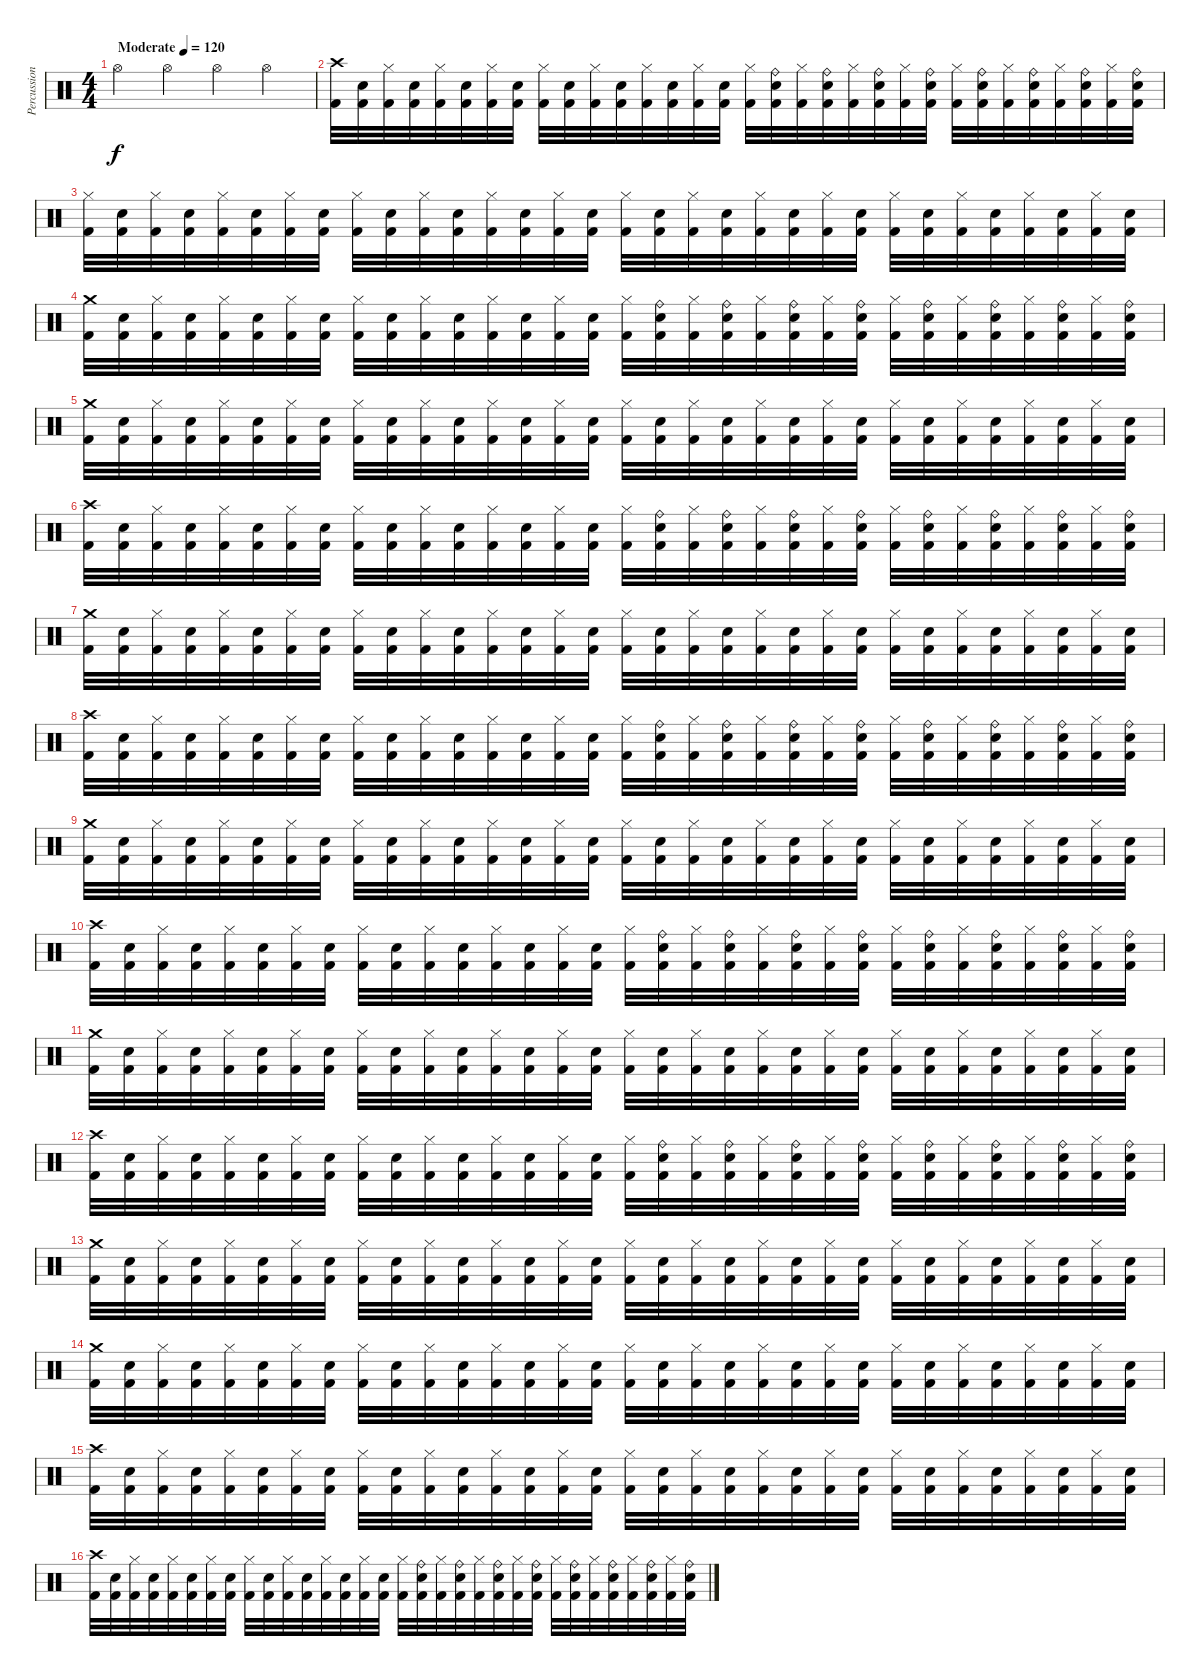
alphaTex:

\track ("Percussion" "Percussion") {instrument percussion}
\staff {score}
\articulation defaults
\ts (4 4)
\tempo (120 "Moderate")
\clef neutral
\ks c "Hi-Hat (open)".4{dy f} "Hi-Hat (open)".4 "Hi-Hat (open)".4 "Hi-Hat (open)".4
|
("Crash high (hit)" "Kick (hit) 2").32 ("Snare (hit) 2" "Kick (hit) 2").32 ("Hi-Hat (closed)" "Kick (hit) 2").32 ("Snare (hit) 2" "Kick (hit) 2").32 ("Hi-Hat (closed)" "Kick (hit) 2").32 ("Snare (hit) 2" "Kick (hit) 2").32 ("Hi-Hat (closed)" "Kick (hit) 2").32 ("Snare (hit) 2" "Kick (hit) 2").32 ("Hi-Hat (closed)" "Kick (hit) 2").32 ("Snare (hit) 2" "Kick (hit) 2").32 ("Hi-Hat (closed)" "Kick (hit) 2").32 ("Snare (hit) 2" "Kick (hit) 2").32 ("Hi-Hat (closed)" "Kick (hit) 2").32 ("Snare (hit) 2" "Kick (hit) 2").32 ("Hi-Hat (closed)" "Kick (hit) 2").32 ("Snare (hit) 2" "Kick (hit) 2").32 ("Hi-Hat (closed)" "Kick (hit) 2").32 ("Snare (hit) 2" "Ride (bell)" "Kick (hit) 2").32 ("Hi-Hat (closed)" "Kick (hit) 2").32 ("Snare (hit) 2" "Ride (bell)" "Kick (hit) 2").32 ("Hi-Hat (closed)" "Kick (hit) 2").32 ("Snare (hit) 2" "Ride (bell)" "Kick (hit) 2").32 ("Hi-Hat (closed)" "Kick (hit) 2").32 ("Snare (hit) 2" "Ride (bell)" "Kick (hit) 2").32 ("Hi-Hat (closed)" "Kick (hit) 2").32 ("Snare (hit) 2" "Ride (bell)" "Kick (hit) 2").32 ("Hi-Hat (closed)" "Kick (hit) 2").32 ("Snare (hit) 2" "Ride (bell)" "Kick (hit) 2").32 ("Hi-Hat (closed)" "Kick (hit) 2").32 ("Snare (hit) 2" "Ride (bell)" "Kick (hit) 2").32 ("Hi-Hat (closed)" "Kick (hit) 2").32 ("Snare (hit) 2" "Ride (bell)" "Kick (hit) 2").32 |
("Hi-Hat (closed)" "Kick (hit) 2").32 ("Snare (hit) 2" "Kick (hit) 2").32 ("Hi-Hat (closed)" "Kick (hit) 2").32 ("Snare (hit) 2" "Kick (hit) 2").32 ("Hi-Hat (closed)" "Kick (hit) 2").32 ("Snare (hit) 2" "Kick (hit) 2").32 ("Hi-Hat (closed)" "Kick (hit) 2").32 ("Snare (hit) 2" "Kick (hit) 2").32 ("Hi-Hat (closed)" "Kick (hit) 2").32 ("Snare (hit) 2" "Kick (hit) 2").32 ("Hi-Hat (closed)" "Kick (hit) 2").32 ("Snare (hit) 2" "Kick (hit) 2").32 ("Hi-Hat (closed)" "Kick (hit) 2").32 ("Snare (hit) 2" "Kick (hit) 2").32 ("Hi-Hat (closed)" "Kick (hit) 2").32 ("Snare (hit) 2" "Kick (hit) 2").32 ("Hi-Hat (closed)" "Kick (hit) 2").32 ("Snare (hit) 2" "Kick (hit) 2").32 ("Hi-Hat (closed)" "Kick (hit) 2").32 ("Snare (hit) 2" "Kick (hit) 2").32 ("Hi-Hat (closed)" "Kick (hit) 2").32 ("Snare (hit) 2" "Kick (hit) 2").32 ("Hi-Hat (closed)" "Kick (hit) 2").32 ("Snare (hit) 2" "Kick (hit) 2").32 ("Hi-Hat (closed)" "Kick (hit) 2").32 ("Snare (hit) 2" "Kick (hit) 2").32 ("Hi-Hat (closed)" "Kick (hit) 2").32 ("Snare (hit) 2" "Kick (hit) 2").32 ("Hi-Hat (closed)" "Kick (hit) 2").32 ("Snare (hit) 2" "Kick (hit) 2").32 ("Hi-Hat (closed)" "Kick (hit) 2").32 ("Snare (hit) 2" "Kick (hit) 2").32 |
("Crash medium (hit)" "Kick (hit) 2").32 ("Snare (hit) 2" "Kick (hit) 2").32 ("Hi-Hat (closed)" "Kick (hit) 2").32 ("Snare (hit) 2" "Kick (hit) 2").32 ("Hi-Hat (closed)" "Kick (hit) 2").32 ("Snare (hit) 2" "Kick (hit) 2").32 ("Hi-Hat (closed)" "Kick (hit) 2").32 ("Snare (hit) 2" "Kick (hit) 2").32 ("Hi-Hat (closed)" "Kick (hit) 2").32 ("Snare (hit) 2" "Kick (hit) 2").32 ("Hi-Hat (closed)" "Kick (hit) 2").32 ("Snare (hit) 2" "Kick (hit) 2").32 ("Hi-Hat (closed)" "Kick (hit) 2").32 ("Snare (hit) 2" "Kick (hit) 2").32 ("Hi-Hat (closed)" "Kick (hit) 2").32 ("Snare (hit) 2" "Kick (hit) 2").32 ("Hi-Hat (closed)" "Kick (hit) 2").32 ("Snare (hit) 2" "Ride (bell)" "Kick (hit) 2").32 ("Hi-Hat (closed)" "Kick (hit) 2").32 ("Snare (hit) 2" "Ride (bell)" "Kick (hit) 2").32 ("Hi-Hat (closed)" "Kick (hit) 2").32 ("Snare (hit) 2" "Ride (bell)" "Kick (hit) 2").32 ("Hi-Hat (closed)" "Kick (hit) 2").32 ("Snare (hit) 2" "Ride (bell)" "Kick (hit) 2").32 ("Hi-Hat (closed)" "Kick (hit) 2").32 ("Snare (hit) 2" "Ride (bell)" "Kick (hit) 2").32 ("Hi-Hat (closed)" "Kick (hit) 2").32 ("Snare (hit) 2" "Ride (bell)" "Kick (hit) 2").32 ("Hi-Hat (closed)" "Kick (hit) 2").32 ("Snare (hit) 2" "Ride (bell)" "Kick (hit) 2").32 ("Hi-Hat (closed)" "Kick (hit) 2").32 ("Snare (hit) 2" "Ride (bell)" "Kick (hit) 2").32 |
("Crash medium (hit)" "Kick (hit) 2").32 ("Snare (hit) 2" "Kick (hit) 2").32 ("Hi-Hat (closed)" "Kick (hit) 2").32 ("Snare (hit) 2" "Kick (hit) 2").32 ("Hi-Hat (closed)" "Kick (hit) 2").32 ("Snare (hit) 2" "Kick (hit) 2").32 ("Hi-Hat (closed)" "Kick (hit) 2").32 ("Snare (hit) 2" "Kick (hit) 2").32 ("Hi-Hat (closed)" "Kick (hit) 2").32 ("Snare (hit) 2" "Kick (hit) 2").32 ("Hi-Hat (closed)" "Kick (hit) 2").32 ("Snare (hit) 2" "Kick (hit) 2").32 ("Hi-Hat (closed)" "Kick (hit) 2").32 ("Snare (hit) 2" "Kick (hit) 2").32 ("Hi-Hat (closed)" "Kick (hit) 2").32 ("Snare (hit) 2" "Kick (hit) 2").32 ("Hi-Hat (closed)" "Kick (hit) 2").32 ("Snare (hit) 2" "Kick (hit) 2").32 ("Hi-Hat (closed)" "Kick (hit) 2").32 ("Snare (hit) 2" "Kick (hit) 2").32 ("Hi-Hat (closed)" "Kick (hit) 2").32 ("Snare (hit) 2" "Kick (hit) 2").32 ("Hi-Hat (closed)" "Kick (hit) 2").32 ("Snare (hit) 2" "Kick (hit) 2").32 ("Hi-Hat (closed)" "Kick (hit) 2").32 ("Snare (hit) 2" "Kick (hit) 2").32 ("Hi-Hat (closed)" "Kick (hit) 2").32 ("Snare (hit) 2" "Kick (hit) 2").32 ("Hi-Hat (closed)" "Kick (hit) 2").32 ("Snare (hit) 2" "Kick (hit) 2").32 ("Hi-Hat (closed)" "Kick (hit) 2").32 ("Snare (hit) 2" "Kick (hit) 2").32 |
("Crash high (hit)" "Kick (hit) 2").32 ("Snare (hit) 2" "Kick (hit) 2").32 ("Hi-Hat (closed)" "Kick (hit) 2").32 ("Snare (hit) 2" "Kick (hit) 2").32 ("Hi-Hat (closed)" "Kick (hit) 2").32 ("Snare (hit) 2" "Kick (hit) 2").32 ("Hi-Hat (closed)" "Kick (hit) 2").32 ("Snare (hit) 2" "Kick (hit) 2").32 ("Hi-Hat (closed)" "Kick (hit) 2").32 ("Snare (hit) 2" "Kick (hit) 2").32 ("Hi-Hat (closed)" "Kick (hit) 2").32 ("Snare (hit) 2" "Kick (hit) 2").32 ("Hi-Hat (closed)" "Kick (hit) 2").32 ("Snare (hit) 2" "Kick (hit) 2").32 ("Hi-Hat (closed)" "Kick (hit) 2").32 ("Snare (hit) 2" "Kick (hit) 2").32 ("Hi-Hat (closed)" "Kick (hit) 2").32 ("Snare (hit) 2" "Ride (bell)" "Kick (hit) 2").32 ("Hi-Hat (closed)" "Kick (hit) 2").32 ("Snare (hit) 2" "Ride (bell)" "Kick (hit) 2").32 ("Hi-Hat (closed)" "Kick (hit) 2").32 ("Snare (hit) 2" "Ride (bell)" "Kick (hit) 2").32 ("Hi-Hat (closed)" "Kick (hit) 2").32 ("Snare (hit) 2" "Ride (bell)" "Kick (hit) 2").32 ("Hi-Hat (closed)" "Kick (hit) 2").32 ("Snare (hit) 2" "Ride (bell)" "Kick (hit) 2").32 ("Hi-Hat (closed)" "Kick (hit) 2").32 ("Snare (hit) 2" "Ride (bell)" "Kick (hit) 2").32 ("Hi-Hat (closed)" "Kick (hit) 2").32 ("Snare (hit) 2" "Ride (bell)" "Kick (hit) 2").32 ("Hi-Hat (closed)" "Kick (hit) 2").32 ("Snare (hit) 2" "Ride (bell)" "Kick (hit) 2").32 |
("Crash medium (hit)" "Kick (hit) 2").32 ("Snare (hit) 2" "Kick (hit) 2").32 ("Hi-Hat (closed)" "Kick (hit) 2").32 ("Snare (hit) 2" "Kick (hit) 2").32 ("Hi-Hat (closed)" "Kick (hit) 2").32 ("Snare (hit) 2" "Kick (hit) 2").32 ("Hi-Hat (closed)" "Kick (hit) 2").32 ("Snare (hit) 2" "Kick (hit) 2").32 ("Hi-Hat (closed)" "Kick (hit) 2").32 ("Snare (hit) 2" "Kick (hit) 2").32 ("Hi-Hat (closed)" "Kick (hit) 2").32 ("Snare (hit) 2" "Kick (hit) 2").32 ("Hi-Hat (closed)" "Kick (hit) 2").32 ("Snare (hit) 2" "Kick (hit) 2").32 ("Hi-Hat (closed)" "Kick (hit) 2").32 ("Snare (hit) 2" "Kick (hit) 2").32 ("Hi-Hat (closed)" "Kick (hit) 2").32 ("Snare (hit) 2" "Kick (hit) 2").32 ("Hi-Hat (closed)" "Kick (hit) 2").32 ("Snare (hit) 2" "Kick (hit) 2").32 ("Hi-Hat (closed)" "Kick (hit) 2").32 ("Snare (hit) 2" "Kick (hit) 2").32 ("Hi-Hat (closed)" "Kick (hit) 2").32 ("Snare (hit) 2" "Kick (hit) 2").32 ("Hi-Hat (closed)" "Kick (hit) 2").32 ("Snare (hit) 2" "Kick (hit) 2").32 ("Hi-Hat (closed)" "Kick (hit) 2").32 ("Snare (hit) 2" "Kick (hit) 2").32 ("Hi-Hat (closed)" "Kick (hit) 2").32 ("Snare (hit) 2" "Kick (hit) 2").32 ("Hi-Hat (closed)" "Kick (hit) 2").32 ("Snare (hit) 2" "Kick (hit) 2").32 |
("Crash high (hit)" "Kick (hit) 2").32 ("Snare (hit) 2" "Kick (hit) 2").32 ("Hi-Hat (closed)" "Kick (hit) 2").32 ("Snare (hit) 2" "Kick (hit) 2").32 ("Hi-Hat (closed)" "Kick (hit) 2").32 ("Snare (hit) 2" "Kick (hit) 2").32 ("Hi-Hat (closed)" "Kick (hit) 2").32 ("Snare (hit) 2" "Kick (hit) 2").32 ("Hi-Hat (closed)" "Kick (hit) 2").32 ("Snare (hit) 2" "Kick (hit) 2").32 ("Hi-Hat (closed)" "Kick (hit) 2").32 ("Snare (hit) 2" "Kick (hit) 2").32 ("Hi-Hat (closed)" "Kick (hit) 2").32 ("Snare (hit) 2" "Kick (hit) 2").32 ("Hi-Hat (closed)" "Kick (hit) 2").32 ("Snare (hit) 2" "Kick (hit) 2").32 ("Hi-Hat (closed)" "Kick (hit) 2").32 ("Snare (hit) 2" "Ride (bell)" "Kick (hit) 2").32 ("Hi-Hat (closed)" "Kick (hit) 2").32 ("Snare (hit) 2" "Ride (bell)" "Kick (hit) 2").32 ("Hi-Hat (closed)" "Kick (hit) 2").32 ("Snare (hit) 2" "Ride (bell)" "Kick (hit) 2").32 ("Hi-Hat (closed)" "Kick (hit) 2").32 ("Snare (hit) 2" "Ride (bell)" "Kick (hit) 2").32 ("Hi-Hat (closed)" "Kick (hit) 2").32 ("Snare (hit) 2" "Ride (bell)" "Kick (hit) 2").32 ("Hi-Hat (closed)" "Kick (hit) 2").32 ("Snare (hit) 2" "Ride (bell)" "Kick (hit) 2").32 ("Hi-Hat (closed)" "Kick (hit) 2").32 ("Snare (hit) 2" "Ride (bell)" "Kick (hit) 2").32 ("Hi-Hat (closed)" "Kick (hit) 2").32 ("Snare (hit) 2" "Ride (bell)" "Kick (hit) 2").32 |
("Crash medium (hit)" "Kick (hit) 2").32 ("Snare (hit) 2" "Kick (hit) 2").32 ("Hi-Hat (closed)" "Kick (hit) 2").32 ("Snare (hit) 2" "Kick (hit) 2").32 ("Hi-Hat (closed)" "Kick (hit) 2").32 ("Snare (hit) 2" "Kick (hit) 2").32 ("Hi-Hat (closed)" "Kick (hit) 2").32 ("Snare (hit) 2" "Kick (hit) 2").32 ("Hi-Hat (closed)" "Kick (hit) 2").32 ("Snare (hit) 2" "Kick (hit) 2").32 ("Hi-Hat (closed)" "Kick (hit) 2").32 ("Snare (hit) 2" "Kick (hit) 2").32 ("Hi-Hat (closed)" "Kick (hit) 2").32 ("Snare (hit) 2" "Kick (hit) 2").32 ("Hi-Hat (closed)" "Kick (hit) 2").32 ("Snare (hit) 2" "Kick (hit) 2").32 ("Hi-Hat (closed)" "Kick (hit) 2").32 ("Snare (hit) 2" "Kick (hit) 2").32 ("Hi-Hat (closed)" "Kick (hit) 2").32 ("Snare (hit) 2" "Kick (hit) 2").32 ("Hi-Hat (closed)" "Kick (hit) 2").32 ("Snare (hit) 2" "Kick (hit) 2").32 ("Hi-Hat (closed)" "Kick (hit) 2").32 ("Snare (hit) 2" "Kick (hit) 2").32 ("Hi-Hat (closed)" "Kick (hit) 2").32 ("Snare (hit) 2" "Kick (hit) 2").32 ("Hi-Hat (closed)" "Kick (hit) 2").32 ("Snare (hit) 2" "Kick (hit) 2").32 ("Hi-Hat (closed)" "Kick (hit) 2").32 ("Snare (hit) 2" "Kick (hit) 2").32 ("Hi-Hat (closed)" "Kick (hit) 2").32 ("Snare (hit) 2" "Kick (hit) 2").32 |
("Crash high (hit)" "Kick (hit) 2").32 ("Snare (hit) 2" "Kick (hit) 2").32 ("Hi-Hat (closed)" "Kick (hit) 2").32 ("Snare (hit) 2" "Kick (hit) 2").32 ("Hi-Hat (closed)" "Kick (hit) 2").32 ("Snare (hit) 2" "Kick (hit) 2").32 ("Hi-Hat (closed)" "Kick (hit) 2").32 ("Snare (hit) 2" "Kick (hit) 2").32 ("Hi-Hat (closed)" "Kick (hit) 2").32 ("Snare (hit) 2" "Kick (hit) 2").32 ("Hi-Hat (closed)" "Kick (hit) 2").32 ("Snare (hit) 2" "Kick (hit) 2").32 ("Hi-Hat (closed)" "Kick (hit) 2").32 ("Snare (hit) 2" "Kick (hit) 2").32 ("Hi-Hat (closed)" "Kick (hit) 2").32 ("Snare (hit) 2" "Kick (hit) 2").32 ("Hi-Hat (closed)" "Kick (hit) 2").32 ("Snare (hit) 2" "Ride (bell)" "Kick (hit) 2").32 ("Hi-Hat (closed)" "Kick (hit) 2").32 ("Snare (hit) 2" "Ride (bell)" "Kick (hit) 2").32 ("Hi-Hat (closed)" "Kick (hit) 2").32 ("Snare (hit) 2" "Ride (bell)" "Kick (hit) 2").32 ("Hi-Hat (closed)" "Kick (hit) 2").32 ("Snare (hit) 2" "Ride (bell)" "Kick (hit) 2").32 ("Hi-Hat (closed)" "Kick (hit) 2").32 ("Snare (hit) 2" "Ride (bell)" "Kick (hit) 2").32 ("Hi-Hat (closed)" "Kick (hit) 2").32 ("Snare (hit) 2" "Ride (bell)" "Kick (hit) 2").32 ("Hi-Hat (closed)" "Kick (hit) 2").32 ("Snare (hit) 2" "Ride (bell)" "Kick (hit) 2").32 ("Hi-Hat (closed)" "Kick (hit) 2").32 ("Snare (hit) 2" "Ride (bell)" "Kick (hit) 2").32 |
("Crash medium (hit)" "Kick (hit) 2").32 ("Snare (hit) 2" "Kick (hit) 2").32 ("Hi-Hat (closed)" "Kick (hit) 2").32 ("Snare (hit) 2" "Kick (hit) 2").32 ("Hi-Hat (closed)" "Kick (hit) 2").32 ("Snare (hit) 2" "Kick (hit) 2").32 ("Hi-Hat (closed)" "Kick (hit) 2").32 ("Snare (hit) 2" "Kick (hit) 2").32 ("Hi-Hat (closed)" "Kick (hit) 2").32 ("Snare (hit) 2" "Kick (hit) 2").32 ("Hi-Hat (closed)" "Kick (hit) 2").32 ("Snare (hit) 2" "Kick (hit) 2").32 ("Hi-Hat (closed)" "Kick (hit) 2").32 ("Snare (hit) 2" "Kick (hit) 2").32 ("Hi-Hat (closed)" "Kick (hit) 2").32 ("Snare (hit) 2" "Kick (hit) 2").32 ("Hi-Hat (closed)" "Kick (hit) 2").32 ("Snare (hit) 2" "Kick (hit) 2").32 ("Hi-Hat (closed)" "Kick (hit) 2").32 ("Snare (hit) 2" "Kick (hit) 2").32 ("Hi-Hat (closed)" "Kick (hit) 2").32 ("Snare (hit) 2" "Kick (hit) 2").32 ("Hi-Hat (closed)" "Kick (hit) 2").32 ("Snare (hit) 2" "Kick (hit) 2").32 ("Hi-Hat (closed)" "Kick (hit) 2").32 ("Snare (hit) 2" "Kick (hit) 2").32 ("Hi-Hat (closed)" "Kick (hit) 2").32 ("Snare (hit) 2" "Kick (hit) 2").32 ("Hi-Hat (closed)" "Kick (hit) 2").32 ("Snare (hit) 2" "Kick (hit) 2").32 ("Hi-Hat (closed)" "Kick (hit) 2").32 ("Snare (hit) 2" "Kick (hit) 2").32 |
("Crash high (hit)" "Kick (hit) 2").32 ("Snare (hit) 2" "Kick (hit) 2").32 ("Hi-Hat (closed)" "Kick (hit) 2").32 ("Snare (hit) 2" "Kick (hit) 2").32 ("Hi-Hat (closed)" "Kick (hit) 2").32 ("Snare (hit) 2" "Kick (hit) 2").32 ("Hi-Hat (closed)" "Kick (hit) 2").32 ("Snare (hit) 2" "Kick (hit) 2").32 ("Hi-Hat (closed)" "Kick (hit) 2").32 ("Snare (hit) 2" "Kick (hit) 2").32 ("Hi-Hat (closed)" "Kick (hit) 2").32 ("Snare (hit) 2" "Kick (hit) 2").32 ("Hi-Hat (closed)" "Kick (hit) 2").32 ("Snare (hit) 2" "Kick (hit) 2").32 ("Hi-Hat (closed)" "Kick (hit) 2").32 ("Snare (hit) 2" "Kick (hit) 2").32 ("Hi-Hat (closed)" "Kick (hit) 2").32 ("Snare (hit) 2" "Ride (bell)" "Kick (hit) 2").32 ("Hi-Hat (closed)" "Kick (hit) 2").32 ("Snare (hit) 2" "Ride (bell)" "Kick (hit) 2").32 ("Hi-Hat (closed)" "Kick (hit) 2").32 ("Snare (hit) 2" "Ride (bell)" "Kick (hit) 2").32 ("Hi-Hat (closed)" "Kick (hit) 2").32 ("Snare (hit) 2" "Ride (bell)" "Kick (hit) 2").32 ("Hi-Hat (closed)" "Kick (hit) 2").32 ("Snare (hit) 2" "Ride (bell)" "Kick (hit) 2").32 ("Hi-Hat (closed)" "Kick (hit) 2").32 ("Snare (hit) 2" "Ride (bell)" "Kick (hit) 2").32 ("Hi-Hat (closed)" "Kick (hit) 2").32 ("Snare (hit) 2" "Ride (bell)" "Kick (hit) 2").32 ("Hi-Hat (closed)" "Kick (hit) 2").32 ("Snare (hit) 2" "Ride (bell)" "Kick (hit) 2").32 |
("Crash medium (hit)" "Kick (hit) 2").32 ("Snare (hit) 2" "Kick (hit) 2").32 ("Hi-Hat (closed)" "Kick (hit) 2").32 ("Snare (hit) 2" "Kick (hit) 2").32 ("Hi-Hat (closed)" "Kick (hit) 2").32 ("Snare (hit) 2" "Kick (hit) 2").32 ("Hi-Hat (closed)" "Kick (hit) 2").32 ("Snare (hit) 2" "Kick (hit) 2").32 ("Hi-Hat (closed)" "Kick (hit) 2").32 ("Snare (hit) 2" "Kick (hit) 2").32 ("Hi-Hat (closed)" "Kick (hit) 2").32 ("Snare (hit) 2" "Kick (hit) 2").32 ("Hi-Hat (closed)" "Kick (hit) 2").32 ("Snare (hit) 2" "Kick (hit) 2").32 ("Hi-Hat (closed)" "Kick (hit) 2").32 ("Snare (hit) 2" "Kick (hit) 2").32 ("Hi-Hat (closed)" "Kick (hit) 2").32 ("Snare (hit) 2" "Kick (hit) 2").32 ("Hi-Hat (closed)" "Kick (hit) 2").32 ("Snare (hit) 2" "Kick (hit) 2").32 ("Hi-Hat (closed)" "Kick (hit) 2").32 ("Snare (hit) 2" "Kick (hit) 2").32 ("Hi-Hat (closed)" "Kick (hit) 2").32 ("Snare (hit) 2" "Kick (hit) 2").32 ("Hi-Hat (closed)" "Kick (hit) 2").32 ("Snare (hit) 2" "Kick (hit) 2").32 ("Hi-Hat (closed)" "Kick (hit) 2").32 ("Snare (hit) 2" "Kick (hit) 2").32 ("Hi-Hat (closed)" "Kick (hit) 2").32 ("Snare (hit) 2" "Kick (hit) 2").32 ("Hi-Hat (closed)" "Kick (hit) 2").32 ("Snare (hit) 2" "Kick (hit) 2").32 |
("Crash medium (hit)" "Kick (hit) 2").32 ("Snare (hit) 2" "Kick (hit) 2").32 ("Hi-Hat (closed)" "Kick (hit) 2").32 ("Snare (hit) 2" "Kick (hit) 2").32 ("Hi-Hat (closed)" "Kick (hit) 2").32 ("Snare (hit) 2" "Kick (hit) 2").32 ("Hi-Hat (closed)" "Kick (hit) 2").32 ("Snare (hit) 2" "Kick (hit) 2").32 ("Hi-Hat (closed)" "Kick (hit) 2").32 ("Snare (hit) 2" "Kick (hit) 2").32 ("Hi-Hat (closed)" "Kick (hit) 2").32 ("Snare (hit) 2" "Kick (hit) 2").32 ("Hi-Hat (closed)" "Kick (hit) 2").32 ("Snare (hit) 2" "Kick (hit) 2").32 ("Hi-Hat (closed)" "Kick (hit) 2").32 ("Snare (hit) 2" "Kick (hit) 2").32 ("Hi-Hat (closed)" "Kick (hit) 2").32 ("Snare (hit) 2" "Kick (hit) 2").32 ("Hi-Hat (closed)" "Kick (hit) 2").32 ("Snare (hit) 2" "Kick (hit) 2").32 ("Hi-Hat (closed)" "Kick (hit) 2").32 ("Snare (hit) 2" "Kick (hit) 2").32 ("Hi-Hat (closed)" "Kick (hit) 2").32 ("Snare (hit) 2" "Kick (hit) 2").32 ("Hi-Hat (closed)" "Kick (hit) 2").32 ("Snare (hit) 2" "Kick (hit) 2").32 ("Hi-Hat (closed)" "Kick (hit) 2").32 ("Snare (hit) 2" "Kick (hit) 2").32 ("Hi-Hat (closed)" "Kick (hit) 2").32 ("Snare (hit) 2" "Kick (hit) 2").32 ("Hi-Hat (closed)" "Kick (hit) 2").32 ("Snare (hit) 2" "Kick (hit) 2").32 |
("Crash high (hit)" "Kick (hit) 2").32 ("Snare (hit) 2" "Kick (hit) 2").32 ("Hi-Hat (closed)" "Kick (hit) 2").32 ("Snare (hit) 2" "Kick (hit) 2").32 ("Hi-Hat (closed)" "Kick (hit) 2").32 ("Snare (hit) 2" "Kick (hit) 2").32 ("Hi-Hat (closed)" "Kick (hit) 2").32 ("Snare (hit) 2" "Kick (hit) 2").32 ("Hi-Hat (closed)" "Kick (hit) 2").32 ("Snare (hit) 2" "Kick (hit) 2").32 ("Hi-Hat (closed)" "Kick (hit) 2").32 ("Snare (hit) 2" "Kick (hit) 2").32 ("Hi-Hat (closed)" "Kick (hit) 2").32 ("Snare (hit) 2" "Kick (hit) 2").32 ("Hi-Hat (closed)" "Kick (hit) 2").32 ("Snare (hit) 2" "Kick (hit) 2").32 ("Hi-Hat (closed)" "Kick (hit) 2").32 ("Snare (hit) 2" "Kick (hit) 2").32 ("Hi-Hat (closed)" "Kick (hit) 2").32 ("Snare (hit) 2" "Kick (hit) 2").32 ("Hi-Hat (closed)" "Kick (hit) 2").32 ("Snare (hit) 2" "Kick (hit) 2").32 ("Hi-Hat (closed)" "Kick (hit) 2").32 ("Snare (hit) 2" "Kick (hit) 2").32 ("Hi-Hat (closed)" "Kick (hit) 2").32 ("Snare (hit) 2" "Kick (hit) 2").32 ("Hi-Hat (closed)" "Kick (hit) 2").32 ("Snare (hit) 2" "Kick (hit) 2").32 ("Hi-Hat (closed)" "Kick (hit) 2").32 ("Snare (hit) 2" "Kick (hit) 2").32 ("Hi-Hat (closed)" "Kick (hit) 2").32 ("Snare (hit) 2" "Kick (hit) 2").32 |
("Crash high (hit)" "Kick (hit) 2").32 ("Snare (hit) 2" "Kick (hit) 2").32 ("Hi-Hat (closed)" "Kick (hit) 2").32 ("Snare (hit) 2" "Kick (hit) 2").32 ("Hi-Hat (closed)" "Kick (hit) 2").32 ("Snare (hit) 2" "Kick (hit) 2").32 ("Hi-Hat (closed)" "Kick (hit) 2").32 ("Snare (hit) 2" "Kick (hit) 2").32 ("Hi-Hat (closed)" "Kick (hit) 2").32 ("Snare (hit) 2" "Kick (hit) 2").32 ("Hi-Hat (closed)" "Kick (hit) 2").32 ("Snare (hit) 2" "Kick (hit) 2").32 ("Hi-Hat (closed)" "Kick (hit) 2").32 ("Snare (hit) 2" "Kick (hit) 2").32 ("Hi-Hat (closed)" "Kick (hit) 2").32 ("Snare (hit) 2" "Kick (hit) 2").32 ("Hi-Hat (closed)" "Kick (hit) 2").32 ("Snare (hit) 2" "Ride (bell)" "Kick (hit) 2").32 ("Hi-Hat (closed)" "Kick (hit) 2").32 ("Snare (hit) 2" "Ride (bell)" "Kick (hit) 2").32 ("Hi-Hat (closed)" "Kick (hit) 2").32 ("Snare (hit) 2" "Ride (bell)" "Kick (hit) 2").32 ("Hi-Hat (closed)" "Kick (hit) 2").32 ("Snare (hit) 2" "Ride (bell)" "Kick (hit) 2").32 ("Hi-Hat (closed)" "Kick (hit) 2").32 ("Snare (hit) 2" "Ride (bell)" "Kick (hit) 2").32 ("Hi-Hat (closed)" "Kick (hit) 2").32 ("Snare (hit) 2" "Ride (bell)" "Kick (hit) 2").32 ("Hi-Hat (closed)" "Kick (hit) 2").32 ("Snare (hit) 2" "Ride (bell)" "Kick (hit) 2").32 ("Hi-Hat (closed)" "Kick (hit) 2").32 ("Snare (hit) 2" "Ride (bell)" "Kick (hit) 2").32
